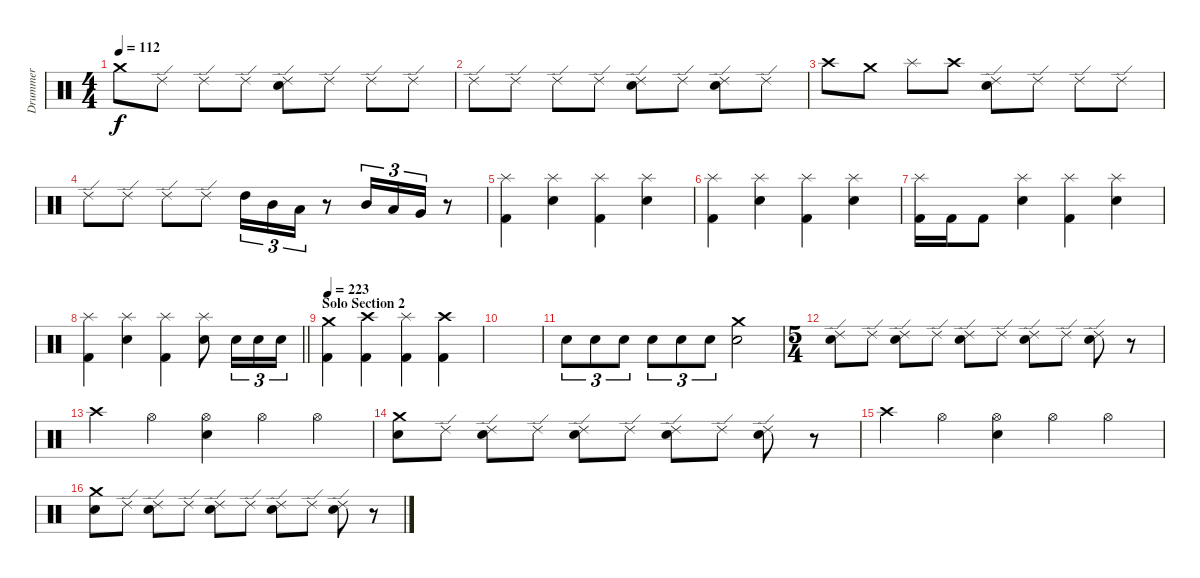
\track ("Drummer" "Drummer") {instrument percussion}
\staff {score}
\articulation defaults
\ts (4 4)
\tempo 112
\clef neutral
\ks c "Crash medium (hit)".8{dy f} "Ride (edge) 2".8 "Ride (edge) 2".8 "Ride (edge) 2".8
("Ride (edge) 2" "Electric Snare (hit)").8 "Ride (edge) 2".8 "Ride (edge) 2".8 "Ride (edge) 2".8 |
"Ride (edge) 2".8 "Ride (edge) 2".8 "Ride (edge) 2".8 "Ride (edge) 2".8 ("Ride (edge) 2" "Electric Snare (hit)").8 "Ride (edge) 2".8 ("Ride (edge) 2" "Electric Snare (hit)").8 "Ride (edge) 2".8 |
"Crash high (hit)".8 "Crash medium (hit)".8 "Splash (hit)".8 "Crash high (hit)".8 ("Ride (edge) 2" "Electric Snare (hit)").8 "Ride (edge) 2".8 "Ride (edge) 2".8 "Ride (edge) 2".8 |
"Ride (edge) 2".8 "Ride (edge) 2".8 "Ride (edge) 2".8 "Ride (edge) 2".8 "High Tom (hit)".16{tu (3 2)} "Mid Tom (hit)".16{tu (3 2)} "Low Tom (hit)".16{tu (3 2)} r.8 "Mid Tom (hit)".16{tu (3 2)} "Low Tom (hit)".16{tu (3 2)} "Very Low Tom (hit)".16{tu (3 2)} r.8 |
("Splash (hit)" "Kick (hit) 2").4 ("Splash (hit)" "Electric Snare (hit)").4 ("Splash (hit)" "Kick (hit) 2").4 ("Splash (hit)" "Electric Snare (hit)").4 |
("Splash (hit)" "Kick (hit) 2").4 ("Splash (hit)" "Electric Snare (hit)").4 ("Splash (hit)" "Kick (hit) 2").4 ("Splash (hit)" "Electric Snare (hit)").4 |
("Splash (hit)" "Kick (hit) 2").16 "Kick (hit) 2".16 "Kick (hit) 2".8 ("Splash (hit)" "Electric Snare (hit)").4 ("Splash (hit)" "Kick (hit) 2").4 ("Splash (hit)" "Electric Snare (hit)").4 |
\barLineRight lightlight
("Splash (hit)" "Kick (hit) 2").4 ("Splash (hit)" "Electric Snare (hit)").4 ("Splash (hit)" "Kick (hit) 2").4 ("Splash (hit)" "Electric Snare (hit)").8 "Electric Snare (hit)".16{tu (3 2)} "Electric Snare (hit)".16{tu (3 2)} "Electric Snare (hit)".16{tu (3 2)} |
\section ("" "Solo Section 2")
\tempo 223
("Crash medium (hit)" "Kick (hit) 2").4 ("Crash high (hit)" "Kick (hit) 2").4 ("Splash (hit)" "Kick (hit) 2").4 ("Crash high (hit)" "Kick (hit) 2").4 |
|
"Electric Snare (hit)".8{tu (3 2)} "Electric Snare (hit)".8{tu (3 2)} "Electric Snare (hit)".8{tu (3 2)} "Electric Snare (hit)".8{tu (3 2)} "Electric Snare (hit)".8{tu (3 2)} "Electric Snare (hit)".8{tu (3 2)} ("Crash medium (hit)" "Electric Snare (hit)").2 |
\ts (5 4)
("Ride (edge) 2" "Electric Snare (hit)").8 "Ride (edge) 2".8 ("Ride (edge) 2" "Electric Snare (hit)").8 "Ride (edge) 2".8 ("Ride (edge) 2" "Electric Snare (hit)").8 "Ride (edge) 2".8 ("Ride (edge) 2" "Electric Snare (hit)").8 "Ride (edge) 2".8 ("Ride (edge) 2" "Electric Snare (hit)").8 r.8 |
"Crash high (hit)".4 "Hi-Hat (open)".4 ("Hi-Hat (open)" "Electric Snare (hit)").4 "Hi-Hat (open)".4 "Hi-Hat (open)".4 |
("Crash medium (hit)" "Electric Snare (hit)").8 "Ride (edge) 2".8 ("Ride (edge) 2" "Electric Snare (hit)").8 "Ride (edge) 2".8 ("Ride (edge) 2" "Electric Snare (hit)").8 "Ride (edge) 2".8 ("Ride (edge) 2" "Electric Snare (hit)").8 "Ride (edge) 2".8 ("Ride (edge) 2" "Electric Snare (hit)").8 r.8 |
"Crash high (hit)".4 "Hi-Hat (open)".4 ("Hi-Hat (open)" "Electric Snare (hit)").4 "Hi-Hat (open)".4 "Hi-Hat (open)".4 |
("Crash medium (hit)" "Electric Snare (hit)").8 "Ride (edge) 2".8 ("Ride (edge) 2" "Electric Snare (hit)").8 "Ride (edge) 2".8 ("Ride (edge) 2" "Electric Snare (hit)").8 "Ride (edge) 2".8 ("Ride (edge) 2" "Electric Snare (hit)").8 "Ride (edge) 2".8 ("Ride (edge) 2" "Electric Snare (hit)").8 r.8
